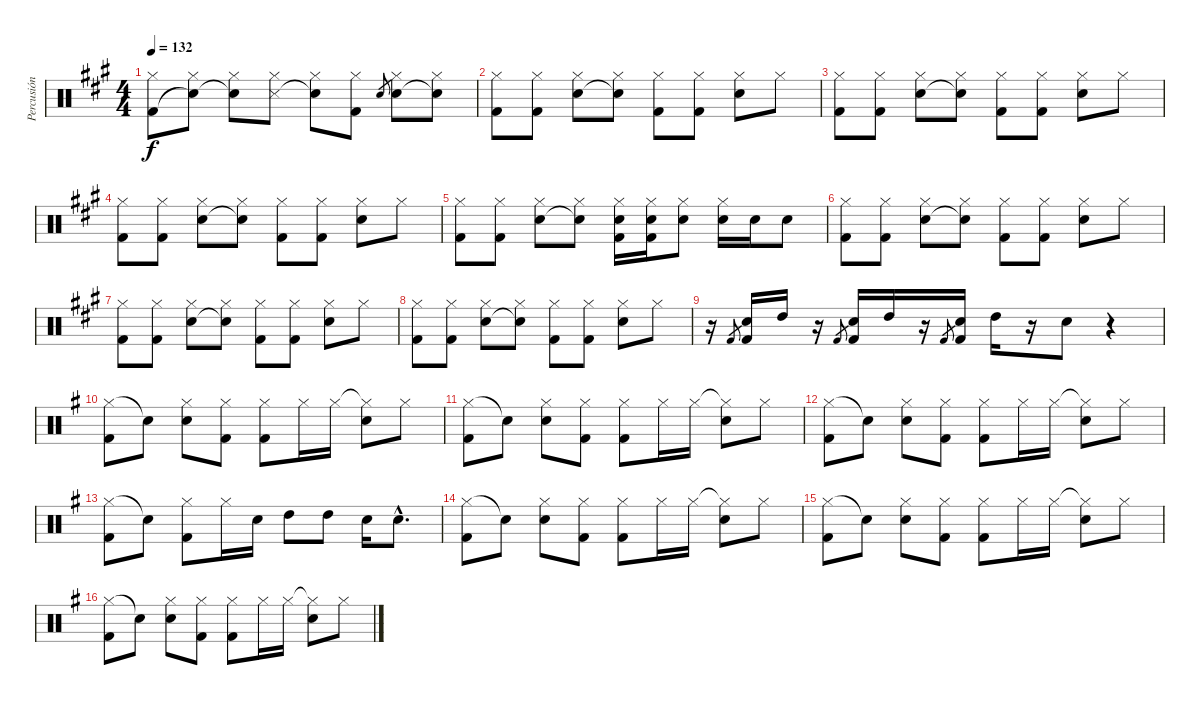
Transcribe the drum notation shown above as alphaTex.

\track ("Percusión" "Percusión") {instrument percussion}
\staff {score}
\articulation defaults
\ts (4 4)
\tempo 132
\clef neutral
\ks f#minor
("Hi-Hat (closed)" "Kick (hit) 2").8{dy f} ("Hi-Hat (closed)" "Snare (hit)"{t}).8 ("Hi-Hat (closed)" "Snare (hit)"{t}).8 ("Hi-Hat (closed)" "Snare (side stick) 3").8 ("Hi-Hat (closed)" "Snare (hit)"{t}).8 ("Hi-Hat (closed)" "Kick (hit) 2").8 "Snare (hit) 2".8{gr} ("Hi-Hat (closed)" "Snare (hit) 2").8 ("Hi-Hat (closed)" "Snare (hit)"{t}).8 |
("Hi-Hat (closed)" "Kick (hit) 2").8 ("Hi-Hat (closed)" "Kick (hit) 2").8 ("Hi-Hat (closed)" "Electric Snare (hit)").8 ("Hi-Hat (closed)" "Snare (hit)"{t}).8 ("Hi-Hat (closed)" "Kick (hit) 2").8 ("Hi-Hat (closed)" "Kick (hit) 2").8 ("Hi-Hat (closed)" "Electric Snare (hit)").8 "Hi-Hat (closed)".8 |
("Hi-Hat (closed)" "Kick (hit) 2").8 ("Hi-Hat (closed)" "Kick (hit) 2").8 ("Hi-Hat (closed)" "Electric Snare (hit)").8 ("Hi-Hat (closed)" "Snare (hit)"{t}).8 ("Hi-Hat (closed)" "Kick (hit) 2").8 ("Hi-Hat (closed)" "Kick (hit) 2").8 ("Hi-Hat (closed)" "Electric Snare (hit)").8 "Hi-Hat (closed)".8 |
("Hi-Hat (closed)" "Kick (hit) 2").8 ("Hi-Hat (closed)" "Kick (hit) 2").8 ("Hi-Hat (closed)" "Electric Snare (hit)").8 ("Hi-Hat (closed)" "Snare (hit)"{t}).8 ("Hi-Hat (closed)" "Kick (hit) 2").8 ("Hi-Hat (closed)" "Kick (hit) 2").8 ("Hi-Hat (closed)" "Electric Snare (hit)").8 "Hi-Hat (closed)".8 |
("Hi-Hat (closed)" "Kick (hit) 2").8 ("Hi-Hat (closed)" "Kick (hit) 2").8 ("Hi-Hat (closed)" "Electric Snare (hit)").8 ("Hi-Hat (closed)" "Snare (hit)"{t}).8 ("Hi-Hat (closed)" "Electric Snare (hit)" "Kick (hit) 2").16 ("Hi-Hat (closed)" "Electric Snare (hit)" "Kick (hit) 2").16 ("Hi-Hat (closed)" "Electric Snare (hit)").8 ("Hi-Hat (closed)" "Electric Snare (hit)").16 "Electric Snare (hit)".16 "Electric Snare (hit)".8 |
("Hi-Hat (closed)" "Kick (hit) 2").8 ("Hi-Hat (closed)" "Kick (hit) 2").8 ("Hi-Hat (closed)" "Electric Snare (hit)").8 ("Hi-Hat (closed)" "Snare (hit)"{t}).8 ("Hi-Hat (closed)" "Kick (hit) 2").8 ("Hi-Hat (closed)" "Kick (hit) 2").8 ("Hi-Hat (closed)" "Electric Snare (hit)").8 "Hi-Hat (closed)".8 |
("Hi-Hat (closed)" "Kick (hit) 2").8 ("Hi-Hat (closed)" "Kick (hit) 2").8 ("Hi-Hat (closed)" "Electric Snare (hit)").8 ("Hi-Hat (closed)" "Snare (hit)"{t}).8 ("Hi-Hat (closed)" "Kick (hit) 2").8 ("Hi-Hat (closed)" "Kick (hit) 2").8 ("Hi-Hat (closed)" "Electric Snare (hit)").8 "Hi-Hat (closed)".8 |
("Hi-Hat (closed)" "Kick (hit) 2").8 ("Hi-Hat (closed)" "Kick (hit) 2").8 ("Hi-Hat (closed)" "Electric Snare (hit)").8 ("Hi-Hat (closed)" "Snare (hit)"{t}).8 ("Hi-Hat (closed)" "Kick (hit) 2").8 ("Hi-Hat (closed)" "Kick (hit) 2").8 ("Hi-Hat (closed)" "Electric Snare (hit)").8 "Hi-Hat (closed)".8 |
r.16 "Kick (hit) 2".8{gr} ("Electric Snare (hit)" "Kick (hit) 2").16 "High Tom (hit)".16 r.16 "Kick (hit) 2".8{gr} ("Electric Snare (hit)" "Kick (hit) 2").16 "High Tom (hit)".16 r.16 "Kick (hit) 2".8{gr} ("Electric Snare (hit)" "Kick (hit) 2").16 "High Tom (hit)".16 r.16 "Electric Snare (hit)".8 r.4 |
\ks eminor
("Hi-Hat (closed)" "Kick (hit) 2").8 "Snare (hit)"{t}.8 ("Hi-Hat (closed)" "Electric Snare (hit)").8 ("Hi-Hat (closed)" "Kick (hit) 2").8 ("Hi-Hat (closed)" "Kick (hit) 2").8 "Hi-Hat (closed)".16 "Hi-Hat (closed)".16 ("Hi-Hat (closed)"{t} "Electric Snare (hit)").8 "Hi-Hat (closed)".8 |
("Hi-Hat (closed)" "Kick (hit) 2").8 "Snare (hit)"{t}.8 ("Hi-Hat (closed)" "Electric Snare (hit)").8 ("Hi-Hat (closed)" "Kick (hit) 2").8 ("Hi-Hat (closed)" "Kick (hit) 2").8 "Hi-Hat (closed)".16 "Hi-Hat (closed)".16 ("Hi-Hat (closed)"{t} "Electric Snare (hit)").8 "Hi-Hat (closed)".8 |
("Hi-Hat (closed)" "Kick (hit) 2").8 "Snare (hit)"{t}.8 ("Hi-Hat (closed)" "Electric Snare (hit)").8 ("Hi-Hat (closed)" "Kick (hit) 2").8 ("Hi-Hat (closed)" "Kick (hit) 2").8 "Hi-Hat (closed)".16 "Hi-Hat (closed)".16 ("Hi-Hat (closed)"{t} "Electric Snare (hit)").8 "Hi-Hat (closed)".8 |
("Hi-Hat (closed)" "Kick (hit) 2").8 "Snare (hit)"{t}.8 ("Hi-Hat (closed)" "Kick (hit) 2").8 "Hi-Hat (closed)".16 "Electric Snare (hit)".16 "High Tom (hit)".8 "High Tom (hit)".8 "Electric Snare (hit)".16 "Electric Snare (hit)"{hac}.8{d} |
("Hi-Hat (closed)" "Kick (hit) 2").8 "Snare (hit)"{t}.8 ("Hi-Hat (closed)" "Electric Snare (hit)").8 ("Hi-Hat (closed)" "Kick (hit) 2").8 ("Hi-Hat (closed)" "Kick (hit) 2").8 "Hi-Hat (closed)".16 "Hi-Hat (closed)".16 ("Hi-Hat (closed)"{t} "Electric Snare (hit)").8 "Hi-Hat (closed)".8 |
("Hi-Hat (closed)" "Kick (hit) 2").8 "Snare (hit)"{t}.8 ("Hi-Hat (closed)" "Electric Snare (hit)").8 ("Hi-Hat (closed)" "Kick (hit) 2").8 ("Hi-Hat (closed)" "Kick (hit) 2").8 "Hi-Hat (closed)".16 "Hi-Hat (closed)".16 ("Hi-Hat (closed)"{t} "Electric Snare (hit)").8 "Hi-Hat (closed)".8 |
("Hi-Hat (closed)" "Kick (hit) 2").8 "Snare (hit)"{t}.8 ("Hi-Hat (closed)" "Electric Snare (hit)").8 ("Hi-Hat (closed)" "Kick (hit) 2").8 ("Hi-Hat (closed)" "Kick (hit) 2").8 "Hi-Hat (closed)".16 "Hi-Hat (closed)".16 ("Hi-Hat (closed)"{t} "Electric Snare (hit)").8 "Hi-Hat (closed)".8
